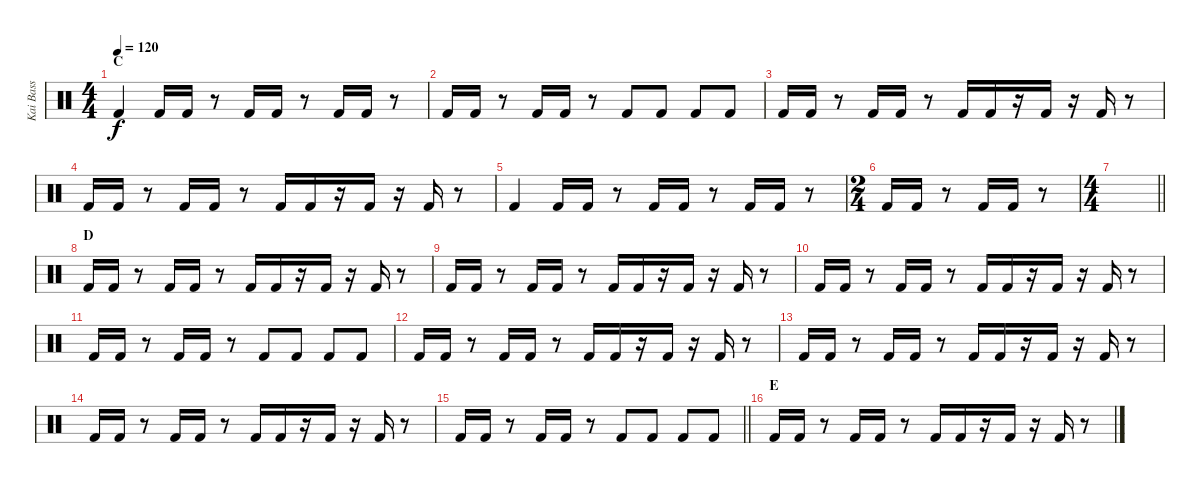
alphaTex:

\track ("Kai Bass" "Kai Bass") {instrument percussion}
\staff {score}
\articulation defaults
\ts (4 4)
\section ("" "C")
\tempo 120
\clef neutral
\ks c "Kick (hit) 2".4{dy f} "Kick (hit) 2".16 "Kick (hit) 2".16
r.8 "Kick (hit) 2".16 "Kick (hit) 2".16 r.8 "Kick (hit) 2".16 "Kick (hit) 2".16 r.8 |
"Kick (hit) 2".16 "Kick (hit) 2".16 r.8 "Kick (hit) 2".16 "Kick (hit) 2".16 r.8 "Kick (hit) 2".8 "Kick (hit) 2".8 "Kick (hit) 2".8 "Kick (hit) 2".8 |
"Kick (hit) 2".16 "Kick (hit) 2".16 r.8 "Kick (hit) 2".16 "Kick (hit) 2".16 r.8 "Kick (hit) 2".16 "Kick (hit) 2".16 r.16 "Kick (hit) 2".16 r.16 "Kick (hit) 2".16 r.8 |
"Kick (hit) 2".16 "Kick (hit) 2".16 r.8 "Kick (hit) 2".16 "Kick (hit) 2".16 r.8 "Kick (hit) 2".16 "Kick (hit) 2".16 r.16 "Kick (hit) 2".16 r.16 "Kick (hit) 2".16 r.8 |
"Kick (hit) 2".4 "Kick (hit) 2".16 "Kick (hit) 2".16 r.8 "Kick (hit) 2".16 "Kick (hit) 2".16 r.8 "Kick (hit) 2".16 "Kick (hit) 2".16 r.8 |
\ts (2 4)
"Kick (hit) 2".16 "Kick (hit) 2".16 r.8 "Kick (hit) 2".16 "Kick (hit) 2".16 r.8 |
\ts (4 4)
\barLineRight lightlight
|
\section ("" "D")
"Kick (hit) 2".16 "Kick (hit) 2".16 r.8 "Kick (hit) 2".16 "Kick (hit) 2".16 r.8 "Kick (hit) 2".16 "Kick (hit) 2".16 r.16 "Kick (hit) 2".16 r.16 "Kick (hit) 2".16 r.8 |
"Kick (hit) 2".16 "Kick (hit) 2".16 r.8 "Kick (hit) 2".16 "Kick (hit) 2".16 r.8 "Kick (hit) 2".16 "Kick (hit) 2".16 r.16 "Kick (hit) 2".16 r.16 "Kick (hit) 2".16 r.8 |
"Kick (hit) 2".16 "Kick (hit) 2".16 r.8 "Kick (hit) 2".16 "Kick (hit) 2".16 r.8 "Kick (hit) 2".16 "Kick (hit) 2".16 r.16 "Kick (hit) 2".16 r.16 "Kick (hit) 2".16 r.8 |
"Kick (hit) 2".16 "Kick (hit) 2".16 r.8 "Kick (hit) 2".16 "Kick (hit) 2".16 r.8 "Kick (hit) 2".8 "Kick (hit) 2".8 "Kick (hit) 2".8 "Kick (hit) 2".8 |
"Kick (hit) 2".16 "Kick (hit) 2".16 r.8 "Kick (hit) 2".16 "Kick (hit) 2".16 r.8 "Kick (hit) 2".16 "Kick (hit) 2".16 r.16 "Kick (hit) 2".16 r.16 "Kick (hit) 2".16 r.8 |
"Kick (hit) 2".16 "Kick (hit) 2".16 r.8 "Kick (hit) 2".16 "Kick (hit) 2".16 r.8 "Kick (hit) 2".16 "Kick (hit) 2".16 r.16 "Kick (hit) 2".16 r.16 "Kick (hit) 2".16 r.8 |
"Kick (hit) 2".16 "Kick (hit) 2".16 r.8 "Kick (hit) 2".16 "Kick (hit) 2".16 r.8 "Kick (hit) 2".16 "Kick (hit) 2".16 r.16 "Kick (hit) 2".16 r.16 "Kick (hit) 2".16 r.8 |
\barLineRight lightlight "Kick (hit) 2".16 "Kick (hit) 2".16
r.8 "Kick (hit) 2".16 "Kick (hit) 2".16 r.8 "Kick (hit) 2".8 "Kick (hit) 2".8 "Kick (hit) 2".8 "Kick (hit) 2".8 |
\section ("" "E")
"Kick (hit) 2".16 "Kick (hit) 2".16 r.8 "Kick (hit) 2".16 "Kick (hit) 2".16 r.8 "Kick (hit) 2".16 "Kick (hit) 2".16 r.16 "Kick (hit) 2".16 r.16 "Kick (hit) 2".16 r.8
